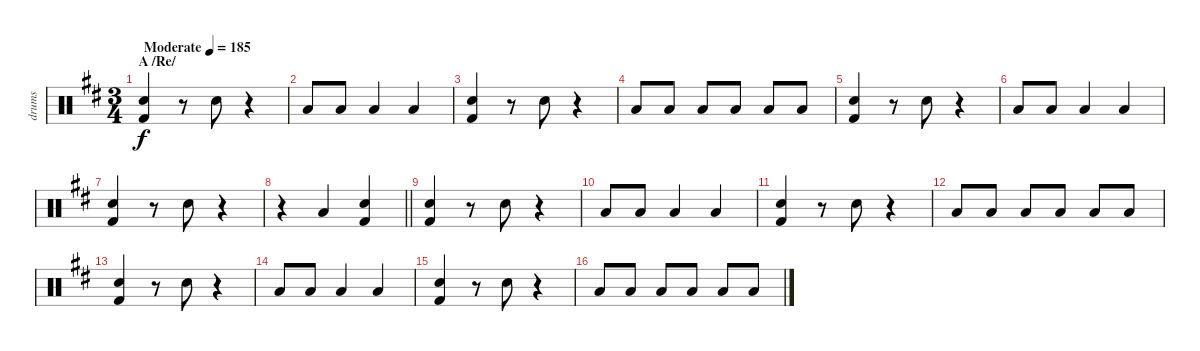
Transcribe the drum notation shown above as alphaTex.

\track ("drums" "drums") {instrument percussion}
\staff {score}
\articulation defaults
\ts (3 4)
\section ("" "A /Re/")
\tempo (185 "Moderate")
\clef neutral
\ks d
("Kick (hit) 2" "Electric Snare (hit)").4{dy f} r.8 "Electric Snare (hit)".8 r.4 |
"Low Tom (hit)".8 "Low Tom (hit)".8 "Low Tom (hit)".4 "Low Tom (hit)".4 |
("Kick (hit) 2" "Electric Snare (hit)").4 r.8 "Electric Snare (hit)".8 r.4 |
"Low Tom (hit)".8 "Low Tom (hit)".8 "Low Tom (hit)".8 "Low Tom (hit)".8 "Low Tom (hit)".8 "Low Tom (hit)".8 |
("Kick (hit) 2" "Electric Snare (hit)").4 r.8 "Electric Snare (hit)".8 r.4 |
"Low Tom (hit)".8 "Low Tom (hit)".8 "Low Tom (hit)".4 "Low Tom (hit)".4 |
("Kick (hit) 2" "Electric Snare (hit)").4 r.8 "Electric Snare (hit)".8 r.4 |
\barLineRight lightlight
r.4 "Low Tom (hit)".4 ("Kick (hit) 2" "Electric Snare (hit)").4 |
("Kick (hit) 2" "Electric Snare (hit)").4 r.8 "Electric Snare (hit)".8 r.4 |
"Low Tom (hit)".8 "Low Tom (hit)".8 "Low Tom (hit)".4 "Low Tom (hit)".4 |
("Kick (hit) 2" "Electric Snare (hit)").4 r.8 "Electric Snare (hit)".8 r.4 |
"Low Tom (hit)".8 "Low Tom (hit)".8 "Low Tom (hit)".8 "Low Tom (hit)".8 "Low Tom (hit)".8 "Low Tom (hit)".8 |
("Kick (hit) 2" "Electric Snare (hit)").4 r.8 "Electric Snare (hit)".8 r.4 |
"Low Tom (hit)".8 "Low Tom (hit)".8 "Low Tom (hit)".4 "Low Tom (hit)".4 |
("Kick (hit) 2" "Electric Snare (hit)").4 r.8 "Electric Snare (hit)".8 r.4 |
"Low Tom (hit)".8 "Low Tom (hit)".8 "Low Tom (hit)".8 "Low Tom (hit)".8 "Low Tom (hit)".8 "Low Tom (hit)".8
